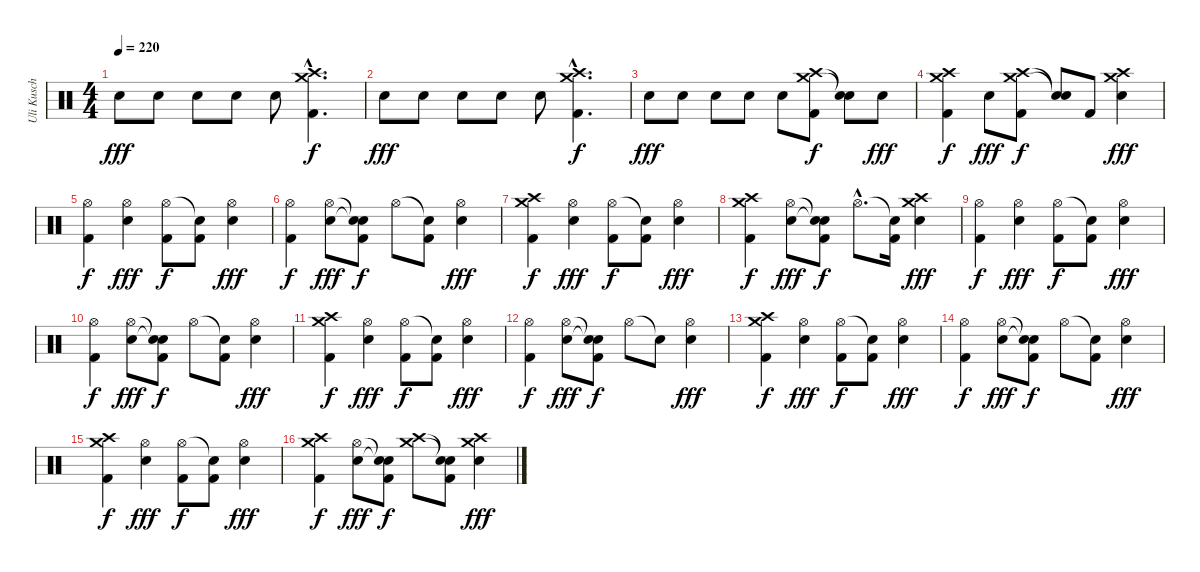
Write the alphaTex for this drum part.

\track ("Uli Kusch" "Uli Kusch") {instrument percussion}
\staff {score}
\articulation defaults
\ts (4 4)
\tempo 220
\clef neutral
\ks c "Electric Snare (hit)".8{dy fff} "Electric Snare (hit)".8 "Electric Snare (hit)".8 "Electric Snare (hit)".8 "Electric Snare (hit)".8
("Crash medium (hit)"{hac} "Crash high (hit)"{hac} "Kick (hit) 2"{hac}).4{d dy f} |
"Electric Snare (hit)".8{dy fff} "Electric Snare (hit)".8 "Electric Snare (hit)".8 "Electric Snare (hit)".8 "Electric Snare (hit)".8 ("Crash medium (hit)"{hac} "Crash high (hit)"{hac} "Kick (hit) 2"{hac}).4{d dy f} |
"Electric Snare (hit)".8{dy fff} "Electric Snare (hit)".8 "Electric Snare (hit)".8 "Electric Snare (hit)".8 "Electric Snare (hit)".8 ("Crash medium (hit)" "Crash high (hit)" "Kick (hit) 2").8{dy f} ("Snare (hit)"{t} "Snare (hit)"{t}).8 "Electric Snare (hit)".8{dy fff} |
("Crash medium (hit)" "Crash high (hit)" "Kick (hit) 2").4{dy f} "Electric Snare (hit)".8{dy fff} ("Crash medium (hit)" "Crash high (hit)" "Kick (hit) 2").8{dy f} ("Snare (hit)"{t} "Snare (hit)"{t}).8 "Kick (hit) 2".8 ("Crash medium (hit)" "Crash high (hit)" "Electric Snare (hit)").4{dy fff} |
("Hi-Hat (open)" "Kick (hit) 2").4{dy f} ("Hi-Hat (open)" "Electric Snare (hit)").4{dy fff} ("Hi-Hat (open)" "Kick (hit) 2").8{dy f} ("Snare (hit)"{t} "Kick (hit) 2").8 ("Hi-Hat (open)" "Electric Snare (hit)").4{dy fff} |
("Hi-Hat (open)" "Kick (hit) 2").4{dy f} ("Hi-Hat (open)" "Electric Snare (hit)").8{dy fff} ("Snare (hit)"{t} "Snare (hit)"{t} "Kick (hit) 2").8{dy f} "Hi-Hat (open)".8 ("Snare (hit)"{t} "Kick (hit) 2").8 ("Hi-Hat (open)" "Electric Snare (hit)").4{dy fff} |
("Crash medium (hit)" "Crash high (hit)" "Kick (hit) 2").4{dy f} ("Hi-Hat (open)" "Electric Snare (hit)").4{dy fff} ("Hi-Hat (open)" "Kick (hit) 2").8{dy f} ("Snare (hit)"{t} "Kick (hit) 2").8 ("Hi-Hat (open)" "Electric Snare (hit)").4{dy fff} |
("Crash high (hit)" "Crash medium (hit)" "Kick (hit) 2").4{dy f} ("Hi-Hat (open)" "Electric Snare (hit)").8{dy fff} ("Snare (hit)"{t} "Snare (hit)"{t} "Kick (hit) 2").8{dy f} "Hi-Hat (open)"{hac}.8{d} ("Snare (hit)"{t} "Kick (hit) 2").16 ("Crash high (hit)" "Crash medium (hit)" "Electric Snare (hit)").4{dy fff} |
("Hi-Hat (open)" "Kick (hit) 2").4{dy f} ("Hi-Hat (open)" "Electric Snare (hit)").4{dy fff} ("Hi-Hat (open)" "Kick (hit) 2").8{dy f} ("Snare (hit)"{t} "Kick (hit) 2").8 ("Hi-Hat (open)" "Electric Snare (hit)").4{dy fff} |
("Hi-Hat (open)" "Kick (hit) 2").4{dy f} ("Hi-Hat (open)" "Electric Snare (hit)").8{dy fff} ("Snare (hit)"{t} "Snare (hit)"{t} "Kick (hit) 2").8{dy f} "Hi-Hat (open)".8 ("Snare (hit)"{t} "Kick (hit) 2").8 ("Hi-Hat (open)" "Electric Snare (hit)").4{dy fff} |
("Crash medium (hit)" "Crash high (hit)" "Kick (hit) 2").4{dy f} ("Hi-Hat (open)" "Electric Snare (hit)").4{dy fff} ("Hi-Hat (open)" "Kick (hit) 2").8{dy f} ("Snare (hit)"{t} "Kick (hit) 2").8 ("Hi-Hat (open)" "Electric Snare (hit)").4{dy fff} |
("Hi-Hat (open)" "Kick (hit) 2").4{dy f} ("Hi-Hat (open)" "Electric Snare (hit)").8{dy fff} ("Snare (hit)"{t} "Snare (hit)"{t} "Kick (hit) 2").8{dy f} "Hi-Hat (open)".8 "Snare (hit)"{t}.8 ("Hi-Hat (open)" "Electric Snare (hit)").4{dy fff} |
("Crash medium (hit)" "Crash high (hit)" "Kick (hit) 2").4{dy f} ("Hi-Hat (open)" "Electric Snare (hit)").4{dy fff} ("Hi-Hat (open)" "Kick (hit) 2").8{dy f} ("Snare (hit)"{t} "Kick (hit) 2").8 ("Hi-Hat (open)" "Electric Snare (hit)").4{dy fff} |
("Hi-Hat (open)" "Kick (hit) 2").4{dy f} ("Hi-Hat (open)" "Electric Snare (hit)").8{dy fff} ("Snare (hit)"{t} "Snare (hit)"{t} "Kick (hit) 2").8{dy f} "Hi-Hat (open)".8 ("Snare (hit)"{t} "Kick (hit) 2").8 ("Hi-Hat (open)" "Electric Snare (hit)").4{dy fff} |
("Crash high (hit)" "Crash medium (hit)" "Kick (hit) 2").4{dy f} ("Hi-Hat (open)" "Electric Snare (hit)").4{dy fff} ("Hi-Hat (open)" "Kick (hit) 2").8{dy f} ("Snare (hit)"{t} "Kick (hit) 2").8 ("Hi-Hat (open)" "Electric Snare (hit)").4{dy fff} |
("Crash medium (hit)" "Crash high (hit)" "Kick (hit) 2").4{dy f} ("Hi-Hat (open)" "Electric Snare (hit)").8{dy fff} ("Snare (hit)"{t} "Snare (hit)"{t} "Kick (hit) 2").8{dy f} ("Crash medium (hit)" "Crash high (hit)").8 ("Snare (hit)"{t} "Snare (hit)"{t} "Kick (hit) 2").8 ("Crash medium (hit)" "Crash high (hit)" "Electric Snare (hit)").4{dy fff}
